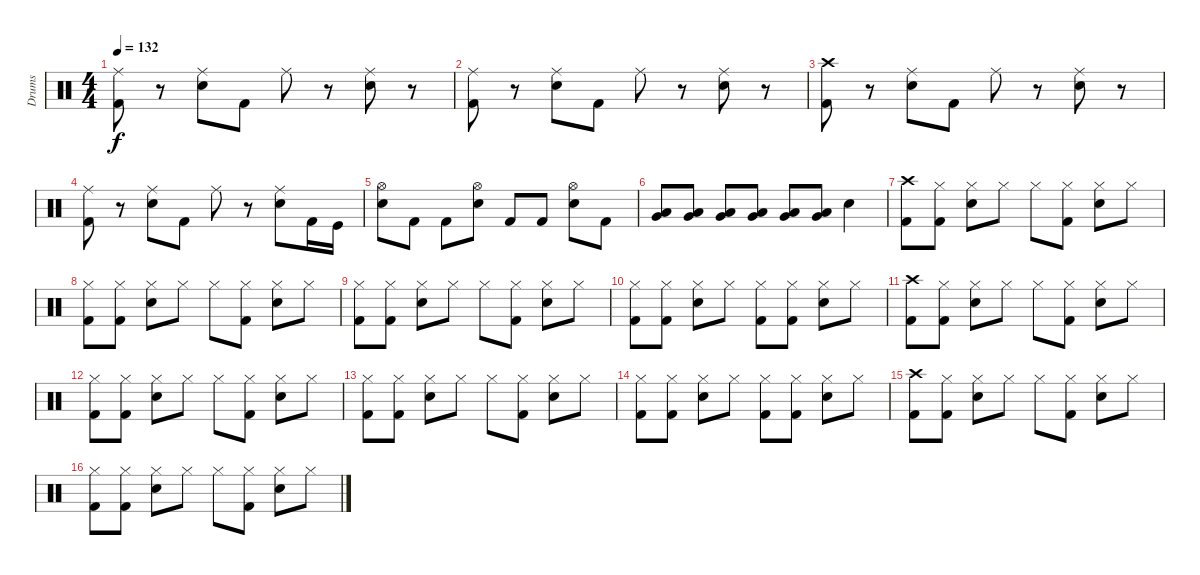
\track ("Drums" "Drums") {instrument percussion}
\staff {score}
\articulation defaults
\ts (4 4)
\tempo 132
\clef neutral
\ks c
("Ride (middle)" "Kick (hit) 2").8{dy f} r.8 ("Ride (middle)" "Snare (hit) 2").8 "Kick (hit) 2".8 "Ride (middle)".8 r.8 ("Snare (hit) 2" "Ride (middle)").8 r.8 |
("Ride (middle)" "Kick (hit) 2").8 r.8 ("Ride (middle)" "Snare (hit) 2").8 "Kick (hit) 2".8 "Ride (middle)".8 r.8 ("Snare (hit) 2" "Ride (middle)").8 r.8 |
("Crash high (hit)" "Kick (hit) 2").8 r.8 ("Ride (middle)" "Snare (hit) 2").8 "Kick (hit) 2".8 "Ride (middle)".8 r.8 ("Snare (hit) 2" "Ride (middle)").8 r.8 |
("Ride (middle)" "Kick (hit) 2").8 r.8 ("Ride (middle)" "Snare (hit) 2").8 "Kick (hit) 2".8 "Ride (middle)".8 r.8 ("Snare (hit) 2" "Ride (middle)").8 "Kick (hit) 2".16 "Kick (hit)".16 |
("Snare (hit) 2" "Hi-Hat (open)").8 "Kick (hit) 2".8 "Kick (hit) 2".8 ("Snare (hit) 2" "Hi-Hat (open)").8 "Kick (hit) 2".8 "Kick (hit) 2".8 ("Snare (hit) 2" "Hi-Hat (open)").8 "Kick (hit) 2".8 |
("Low Floor Tom (hit)" "Very Low Tom (hit)").8 ("Low Floor Tom (hit)" "Very Low Tom (hit)").8 ("Low Floor Tom (hit)" "Very Low Tom (hit)").8 ("Low Floor Tom (hit)" "Very Low Tom (hit)").8 ("Low Floor Tom (hit)" "Very Low Tom (hit)").8 ("Low Floor Tom (hit)" "Very Low Tom (hit)").8 "Snare (hit) 2".4 |
("Crash high (hit)" "Kick (hit) 2").8 ("Hi-Hat (closed)" "Kick (hit) 2").8 ("Hi-Hat (closed)" "Snare (hit) 2").8 "Hi-Hat (closed)".8 "Hi-Hat (closed)".8 ("Hi-Hat (closed)" "Kick (hit) 2").8 ("Hi-Hat (closed)" "Snare (hit) 2").8 "Hi-Hat (closed)".8 |
("Hi-Hat (closed)" "Kick (hit) 2").8 ("Hi-Hat (closed)" "Kick (hit) 2").8 ("Hi-Hat (closed)" "Snare (hit) 2").8 "Hi-Hat (closed)".8 "Hi-Hat (closed)".8 ("Hi-Hat (closed)" "Kick (hit) 2").8 ("Hi-Hat (closed)" "Snare (hit) 2").8 "Hi-Hat (closed)".8 |
("Hi-Hat (closed)" "Kick (hit) 2").8 ("Hi-Hat (closed)" "Kick (hit) 2").8 ("Hi-Hat (closed)" "Snare (hit) 2").8 "Hi-Hat (closed)".8 "Hi-Hat (closed)".8 ("Hi-Hat (closed)" "Kick (hit) 2").8 ("Hi-Hat (closed)" "Snare (hit) 2").8 "Hi-Hat (closed)".8 |
("Hi-Hat (closed)" "Kick (hit) 2").8 ("Hi-Hat (closed)" "Kick (hit) 2").8 ("Hi-Hat (closed)" "Snare (hit) 2").8 "Hi-Hat (closed)".8 ("Hi-Hat (closed)" "Kick (hit) 2").8 ("Hi-Hat (closed)" "Kick (hit) 2").8 ("Hi-Hat (closed)" "Snare (hit) 2").8 "Hi-Hat (closed)".8 |
("Crash high (hit)" "Kick (hit) 2").8 ("Hi-Hat (closed)" "Kick (hit) 2").8 ("Hi-Hat (closed)" "Snare (hit) 2").8 "Hi-Hat (closed)".8 "Hi-Hat (closed)".8 ("Hi-Hat (closed)" "Kick (hit) 2").8 ("Hi-Hat (closed)" "Snare (hit) 2").8 "Hi-Hat (closed)".8 |
("Hi-Hat (closed)" "Kick (hit) 2").8 ("Hi-Hat (closed)" "Kick (hit) 2").8 ("Hi-Hat (closed)" "Snare (hit) 2").8 "Hi-Hat (closed)".8 "Hi-Hat (closed)".8 ("Hi-Hat (closed)" "Kick (hit) 2").8 ("Hi-Hat (closed)" "Snare (hit) 2").8 "Hi-Hat (closed)".8 |
("Hi-Hat (closed)" "Kick (hit) 2").8 ("Hi-Hat (closed)" "Kick (hit) 2").8 ("Hi-Hat (closed)" "Snare (hit) 2").8 "Hi-Hat (closed)".8 "Hi-Hat (closed)".8 ("Hi-Hat (closed)" "Kick (hit) 2").8 ("Hi-Hat (closed)" "Snare (hit) 2").8 "Hi-Hat (closed)".8 |
("Hi-Hat (closed)" "Kick (hit) 2").8 ("Hi-Hat (closed)" "Kick (hit) 2").8 ("Hi-Hat (closed)" "Snare (hit) 2").8 "Hi-Hat (closed)".8 ("Hi-Hat (closed)" "Kick (hit) 2").8 ("Hi-Hat (closed)" "Kick (hit) 2").8 ("Hi-Hat (closed)" "Snare (hit) 2").8 "Hi-Hat (closed)".8 |
("Crash high (hit)" "Kick (hit) 2").8 ("Hi-Hat (closed)" "Kick (hit) 2").8 ("Hi-Hat (closed)" "Snare (hit) 2").8 "Hi-Hat (closed)".8 "Hi-Hat (closed)".8 ("Hi-Hat (closed)" "Kick (hit) 2").8 ("Hi-Hat (closed)" "Snare (hit) 2").8 "Hi-Hat (closed)".8 |
("Hi-Hat (closed)" "Kick (hit) 2").8 ("Hi-Hat (closed)" "Kick (hit) 2").8 ("Hi-Hat (closed)" "Snare (hit) 2").8 "Hi-Hat (closed)".8 "Hi-Hat (closed)".8 ("Hi-Hat (closed)" "Kick (hit) 2").8 ("Hi-Hat (closed)" "Snare (hit) 2").8 "Hi-Hat (closed)".8
